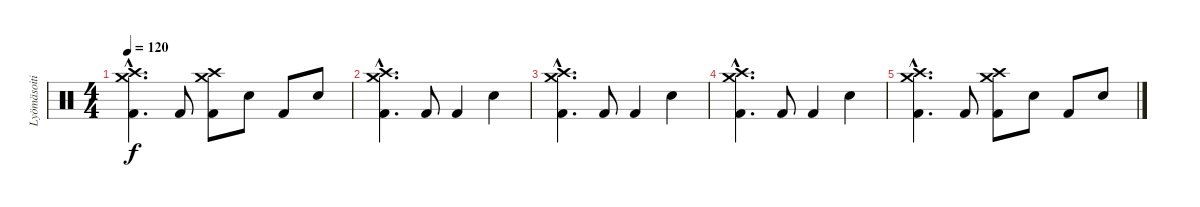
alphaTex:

\track ("Lyömäsoitin" "Lyömäsoiti") {instrument percussion}
\staff {score}
\articulation defaults
\ts (4 4)
\tempo 120
\clef neutral
\ks c
("Kick (hit) 2"{hac} "Crash medium (hit)"{hac} "Crash high (hit)"{hac}).4{d dy f} "Kick (hit) 2".8 ("Kick (hit) 2" "Crash medium (hit)" "Crash high (hit)").8 "Snare (hit) 2".8 "Kick (hit) 2".8 "Snare (hit) 2".8 |
("Kick (hit) 2"{hac} "Crash high (hit)"{hac} "Crash medium (hit)"{hac}).4{d} "Kick (hit) 2".8 "Kick (hit) 2".4 "Snare (hit) 2".4 |
("Kick (hit) 2"{hac} "Crash medium (hit)"{hac} "Crash high (hit)"{hac}).4{d} "Kick (hit) 2".8 "Kick (hit) 2".4 "Snare (hit) 2".4 |
("Kick (hit) 2"{hac} "Crash medium (hit)"{hac} "Crash high (hit)"{hac}).4{d} "Kick (hit) 2".8 "Kick (hit) 2".4 "Snare (hit) 2".4 |
("Kick (hit) 2"{hac} "Crash medium (hit)"{hac} "Crash high (hit)"{hac}).4{d} "Kick (hit) 2".8 ("Kick (hit) 2" "Crash medium (hit)" "Crash high (hit)").8 "Snare (hit) 2".8 "Kick (hit) 2".8 "Snare (hit) 2".8
